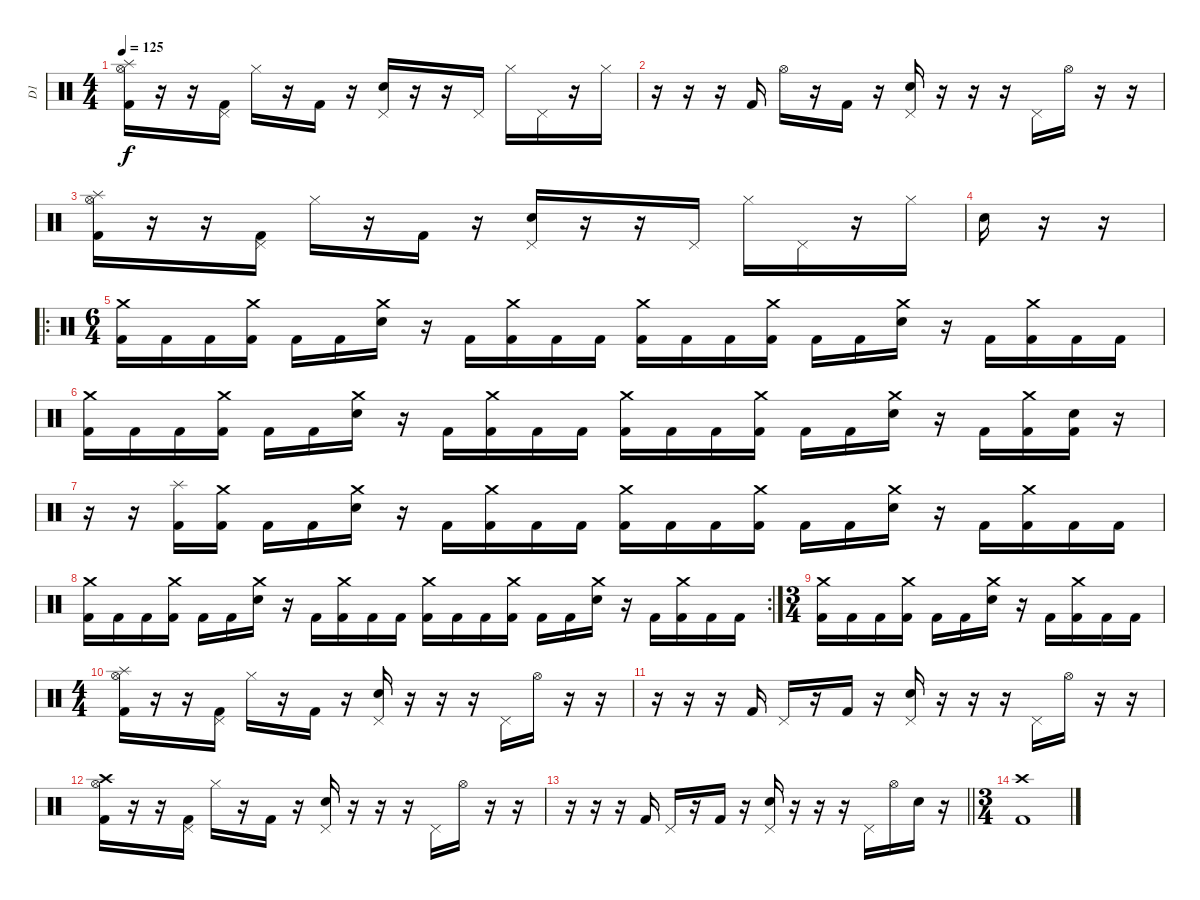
\track ("D1" "D1") {instrument percussion}
\staff {score}
\articulation defaults
\ts (4 4)
\tempo 125
\clef neutral
\ks c
("Splash (hit)" "Hi-Hat (open)" "Kick (hit) 2").16{dy f} r.16 r.16 ("Pedal Hi-Hat (hit)" "Kick (hit) 2").16 "Hi-Hat (closed)".16 r.16 "Kick (hit) 2".16 r.16 ("Pedal Hi-Hat (hit)" "Snare (hit) 2").16 r.16 r.16 "Pedal Hi-Hat (hit)".16 "Hi-Hat (closed)".16 "Pedal Hi-Hat (hit)".16 r.16 "Hi-Hat (closed)".16 |
r.16 r.16 r.16 "Kick (hit) 2".16 "Hi-Hat (open)".16 r.16 "Kick (hit) 2".16 r.16 ("Pedal Hi-Hat (hit)" "Snare (hit) 2").16 r.16 r.16 r.16 "Pedal Hi-Hat (hit)".16 "Hi-Hat (open)".16 r.16 r.16 |
("Splash (hit)" "Hi-Hat (open)" "Kick (hit) 2").16 r.16 r.16 ("Pedal Hi-Hat (hit)" "Kick (hit) 2").16 "Hi-Hat (closed)".16 r.16 "Kick (hit) 2".16 r.16 ("Pedal Hi-Hat (hit)" "Snare (hit) 2").16 r.16 r.16 "Pedal Hi-Hat (hit)".16 "Hi-Hat (closed)".16 "Pedal Hi-Hat (hit)".16 r.16 "Hi-Hat (closed)".16 |
"Snare (hit) 2".16 r.16 r.16 |
\ro
\ts (6 4)
("Crash medium (hit)" "Kick (hit) 2").16 "Kick (hit) 2".16 "Kick (hit) 2".16 ("Crash medium (hit)" "Kick (hit) 2").16 "Kick (hit) 2".16 "Kick (hit) 2".16 ("Crash medium (hit)" "Snare (hit) 2").16 r.16 "Kick (hit) 2".16 ("Crash medium (hit)" "Kick (hit) 2").16 "Kick (hit) 2".16 "Kick (hit) 2".16 ("Crash medium (hit)" "Kick (hit) 2").16 "Kick (hit) 2".16 "Kick (hit) 2".16 ("Crash medium (hit)" "Kick (hit) 2").16 "Kick (hit) 2".16 "Kick (hit) 2".16 ("Crash medium (hit)" "Snare (hit) 2").16 r.16 "Kick (hit) 2".16 ("Crash medium (hit)" "Kick (hit) 2").16 "Kick (hit) 2".16 "Kick (hit) 2".16 |
("Crash medium (hit)" "Kick (hit) 2").16 "Kick (hit) 2".16 "Kick (hit) 2".16 ("Crash medium (hit)" "Kick (hit) 2").16 "Kick (hit) 2".16 "Kick (hit) 2".16 ("Crash medium (hit)" "Snare (hit) 2").16 r.16 "Kick (hit) 2".16 ("Crash medium (hit)" "Kick (hit) 2").16 "Kick (hit) 2".16 "Kick (hit) 2".16 ("Crash medium (hit)" "Kick (hit) 2").16 "Kick (hit) 2".16 "Kick (hit) 2".16 ("Crash medium (hit)" "Kick (hit) 2").16 "Kick (hit) 2".16 "Kick (hit) 2".16 ("Crash medium (hit)" "Snare (hit) 2").16 r.16 "Kick (hit) 2".16 ("Crash medium (hit)" "Kick (hit) 2").16 ("Snare (hit) 2" "Kick (hit) 2").16 r.16 |
r.16 r.16 ("Splash (hit)" "Kick (hit) 2").16 ("Crash medium (hit)" "Kick (hit) 2").16 "Kick (hit) 2".16 "Kick (hit) 2".16 ("Crash medium (hit)" "Snare (hit) 2").16 r.16 "Kick (hit) 2".16 ("Crash medium (hit)" "Kick (hit) 2").16 "Kick (hit) 2".16 "Kick (hit) 2".16 ("Crash medium (hit)" "Kick (hit) 2").16 "Kick (hit) 2".16 "Kick (hit) 2".16 ("Crash medium (hit)" "Kick (hit) 2").16 "Kick (hit) 2".16 "Kick (hit) 2".16 ("Crash medium (hit)" "Snare (hit) 2").16 r.16 "Kick (hit) 2".16 ("Crash medium (hit)" "Kick (hit) 2").16 "Kick (hit) 2".16 "Kick (hit) 2".16 |
\rc 2
("Crash medium (hit)" "Kick (hit) 2").16 "Kick (hit) 2".16 "Kick (hit) 2".16 ("Crash medium (hit)" "Kick (hit) 2").16 "Kick (hit) 2".16 "Kick (hit) 2".16 ("Crash medium (hit)" "Snare (hit) 2").16 r.16 "Kick (hit) 2".16 ("Crash medium (hit)" "Kick (hit) 2").16 "Kick (hit) 2".16 "Kick (hit) 2".16 ("Crash medium (hit)" "Kick (hit) 2").16 "Kick (hit) 2".16 "Kick (hit) 2".16 ("Crash medium (hit)" "Kick (hit) 2").16 "Kick (hit) 2".16 "Kick (hit) 2".16 ("Crash medium (hit)" "Snare (hit) 2").16 r.16 "Kick (hit) 2".16 ("Crash medium (hit)" "Kick (hit) 2").16 "Kick (hit) 2".16 "Kick (hit) 2".16 |
\ts (3 4)
("Crash medium (hit)" "Kick (hit) 2").16 "Kick (hit) 2".16 "Kick (hit) 2".16 ("Crash medium (hit)" "Kick (hit) 2").16 "Kick (hit) 2".16 "Kick (hit) 2".16 ("Crash medium (hit)" "Snare (hit) 2").16 r.16 "Kick (hit) 2".16 ("Crash medium (hit)" "Kick (hit) 2").16 "Kick (hit) 2".16 "Kick (hit) 2".16 |
\ts (4 4)
("Splash (hit)" "Hi-Hat (open)" "Kick (hit) 2").16 r.16 r.16 ("Pedal Hi-Hat (hit)" "Kick (hit) 2").16 "Hi-Hat (closed)".16 r.16 "Kick (hit) 2".16 r.16 ("Pedal Hi-Hat (hit)" "Snare (hit) 2").16 r.16 r.16 r.16 "Pedal Hi-Hat (hit)".16 "Hi-Hat (open)".16 r.16 r.16 |
r.16 r.16 r.16 "Kick (hit) 2".16 "Pedal Hi-Hat (hit)".16 r.16 "Kick (hit) 2".16 r.16 ("Pedal Hi-Hat (hit)" "Snare (hit) 2").16 r.16 r.16 r.16 "Pedal Hi-Hat (hit)".16 "Hi-Hat (open)".16 r.16 r.16 |
("Crash high (hit)" "Hi-Hat (open)" "Kick (hit) 2").16 r.16 r.16 ("Pedal Hi-Hat (hit)" "Kick (hit) 2").16 "Hi-Hat (closed)".16 r.16 "Kick (hit) 2".16 r.16 ("Pedal Hi-Hat (hit)" "Snare (hit) 2").16 r.16 r.16 r.16 "Pedal Hi-Hat (hit)".16 "Hi-Hat (open)".16 r.16 r.16 |
\barLineRight lightlight
r.16 r.16 r.16 "Kick (hit) 2".16 "Pedal Hi-Hat (hit)".16 r.16 "Kick (hit) 2".16 r.16 ("Pedal Hi-Hat (hit)" "Snare (hit) 2").16 r.16 r.16 r.16 "Pedal Hi-Hat (hit)".16 "Hi-Hat (open)".16 "Snare (hit) 2".16 r.16 |
\ts (3 4)
\section ("" "")
("Crash high (hit)" "Kick (hit) 2").1
